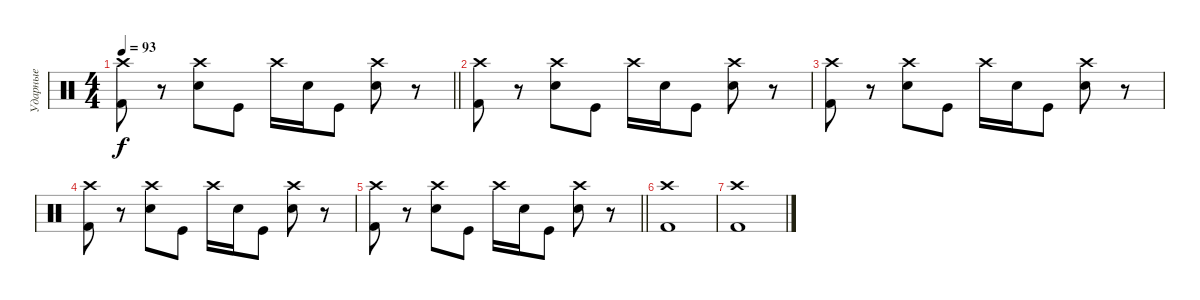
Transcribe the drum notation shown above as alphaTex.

\track ("Ударные" "Ударные") {instrument percussion}
\staff {score}
\articulation defaults
\ts (4 4)
\tempo 93
\clef neutral
\barLineRight lightlight
\ks c
("Crash high (hit)" "Kick (hit) 2").8{dy f} r.8 ("Crash high (hit)" "Electric Snare (hit)").8 "Kick (hit)".8 "Crash high (hit)".16 "Electric Snare (hit)".16 "Kick (hit)".8 ("Crash high (hit)" "Electric Snare (hit)").8 r.8 |
("Crash high (hit)" "Kick (hit) 2").8 r.8 ("Crash high (hit)" "Electric Snare (hit)").8 "Kick (hit)".8 "Crash high (hit)".16 "Electric Snare (hit)".16 "Kick (hit)".8 ("Crash high (hit)" "Electric Snare (hit)").8 r.8 |
("Crash high (hit)" "Kick (hit) 2").8 r.8 ("Crash high (hit)" "Electric Snare (hit)").8 "Kick (hit)".8 "Crash high (hit)".16 "Electric Snare (hit)".16 "Kick (hit)".8 ("Crash high (hit)" "Electric Snare (hit)").8 r.8 |
("Crash high (hit)" "Kick (hit) 2").8 r.8 ("Crash high (hit)" "Electric Snare (hit)").8 "Kick (hit)".8 "Crash high (hit)".16 "Electric Snare (hit)".16 "Kick (hit)".8 ("Crash high (hit)" "Electric Snare (hit)").8 r.8 |
\barLineRight lightlight
("Crash high (hit)" "Kick (hit) 2").8 r.8 ("Crash high (hit)" "Electric Snare (hit)").8 "Kick (hit)".8 "Crash high (hit)".16 "Electric Snare (hit)".16 "Kick (hit)".8 ("Crash high (hit)" "Electric Snare (hit)").8 r.8 |
("Crash high (hit)" "Kick (hit) 2").1 |
("Crash high (hit)" "Kick (hit) 2").1
